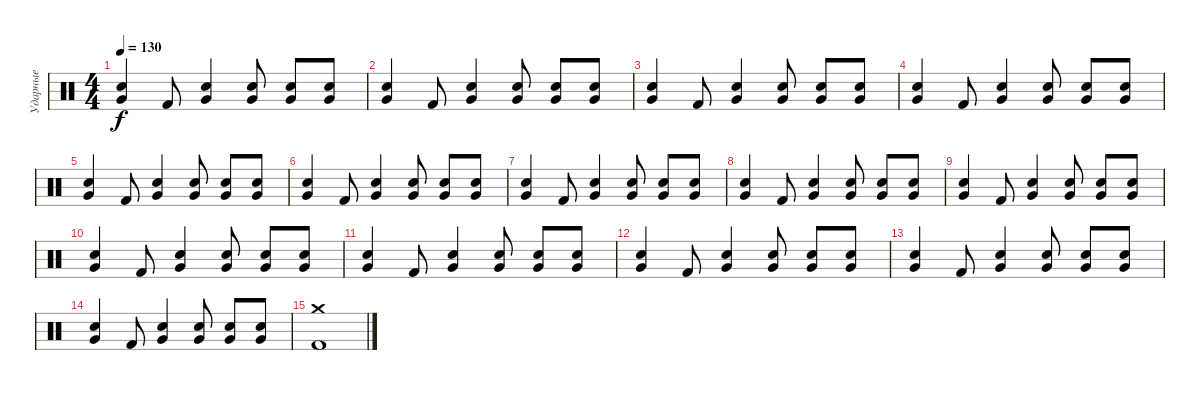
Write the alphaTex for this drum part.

\track ("Ударные" "Ударные") {instrument percussion}
\staff {score}
\articulation defaults
\ts (4 4)
\tempo 130
\clef neutral
\ks c
("Snare (hit) 2" "Very Low Tom (hit)").4{dy f} "Kick (hit) 2".8 ("Snare (hit) 2" "Very Low Tom (hit)").4 ("Snare (hit) 2" "Very Low Tom (hit)").8 ("Snare (hit) 2" "Very Low Tom (hit)").8 ("Snare (hit) 2" "Very Low Tom (hit)").8 |
("Snare (hit) 2" "Very Low Tom (hit)").4 "Kick (hit) 2".8 ("Snare (hit) 2" "Very Low Tom (hit)").4 ("Snare (hit) 2" "Very Low Tom (hit)").8 ("Snare (hit) 2" "Very Low Tom (hit)").8 ("Snare (hit) 2" "Very Low Tom (hit)").8 |
("Snare (hit) 2" "Very Low Tom (hit)").4 "Kick (hit) 2".8 ("Snare (hit) 2" "Very Low Tom (hit)").4 ("Snare (hit) 2" "Very Low Tom (hit)").8 ("Snare (hit) 2" "Very Low Tom (hit)").8 ("Snare (hit) 2" "Very Low Tom (hit)").8 |
("Snare (hit) 2" "Very Low Tom (hit)").4 "Kick (hit) 2".8 ("Snare (hit) 2" "Very Low Tom (hit)").4 ("Snare (hit) 2" "Very Low Tom (hit)").8 ("Snare (hit) 2" "Very Low Tom (hit)").8 ("Snare (hit) 2" "Very Low Tom (hit)").8 |
("Snare (hit) 2" "Very Low Tom (hit)").4 "Kick (hit) 2".8 ("Snare (hit) 2" "Very Low Tom (hit)").4 ("Snare (hit) 2" "Very Low Tom (hit)").8 ("Snare (hit) 2" "Very Low Tom (hit)").8 ("Snare (hit) 2" "Very Low Tom (hit)").8 |
("Snare (hit) 2" "Very Low Tom (hit)").4 "Kick (hit) 2".8 ("Snare (hit) 2" "Very Low Tom (hit)").4 ("Snare (hit) 2" "Very Low Tom (hit)").8 ("Snare (hit) 2" "Very Low Tom (hit)").8 ("Snare (hit) 2" "Very Low Tom (hit)").8 |
("Snare (hit) 2" "Very Low Tom (hit)").4 "Kick (hit) 2".8 ("Snare (hit) 2" "Very Low Tom (hit)").4 ("Snare (hit) 2" "Very Low Tom (hit)").8 ("Snare (hit) 2" "Very Low Tom (hit)").8 ("Snare (hit) 2" "Very Low Tom (hit)").8 |
("Snare (hit) 2" "Very Low Tom (hit)").4 "Kick (hit) 2".8 ("Snare (hit) 2" "Very Low Tom (hit)").4 ("Snare (hit) 2" "Very Low Tom (hit)").8 ("Snare (hit) 2" "Very Low Tom (hit)").8 ("Snare (hit) 2" "Very Low Tom (hit)").8 |
("Snare (hit) 2" "Very Low Tom (hit)").4 "Kick (hit) 2".8 ("Snare (hit) 2" "Very Low Tom (hit)").4 ("Snare (hit) 2" "Very Low Tom (hit)").8 ("Snare (hit) 2" "Very Low Tom (hit)").8 ("Snare (hit) 2" "Very Low Tom (hit)").8 |
("Snare (hit) 2" "Very Low Tom (hit)").4 "Kick (hit) 2".8 ("Snare (hit) 2" "Very Low Tom (hit)").4 ("Snare (hit) 2" "Very Low Tom (hit)").8 ("Snare (hit) 2" "Very Low Tom (hit)").8 ("Snare (hit) 2" "Very Low Tom (hit)").8 |
("Snare (hit) 2" "Very Low Tom (hit)").4 "Kick (hit) 2".8 ("Snare (hit) 2" "Very Low Tom (hit)").4 ("Snare (hit) 2" "Very Low Tom (hit)").8 ("Snare (hit) 2" "Very Low Tom (hit)").8 ("Snare (hit) 2" "Very Low Tom (hit)").8 |
("Snare (hit) 2" "Very Low Tom (hit)").4 "Kick (hit) 2".8 ("Snare (hit) 2" "Very Low Tom (hit)").4 ("Snare (hit) 2" "Very Low Tom (hit)").8 ("Snare (hit) 2" "Very Low Tom (hit)").8 ("Snare (hit) 2" "Very Low Tom (hit)").8 |
("Snare (hit) 2" "Very Low Tom (hit)").4 "Kick (hit) 2".8 ("Snare (hit) 2" "Very Low Tom (hit)").4 ("Snare (hit) 2" "Very Low Tom (hit)").8 ("Snare (hit) 2" "Very Low Tom (hit)").8 ("Snare (hit) 2" "Very Low Tom (hit)").8 |
("Snare (hit) 2" "Very Low Tom (hit)").4 "Kick (hit) 2".8 ("Snare (hit) 2" "Very Low Tom (hit)").4 ("Snare (hit) 2" "Very Low Tom (hit)").8 ("Snare (hit) 2" "Very Low Tom (hit)").8 ("Snare (hit) 2" "Very Low Tom (hit)").8 |
("Crash medium (hit)" "Kick (hit) 2").1
